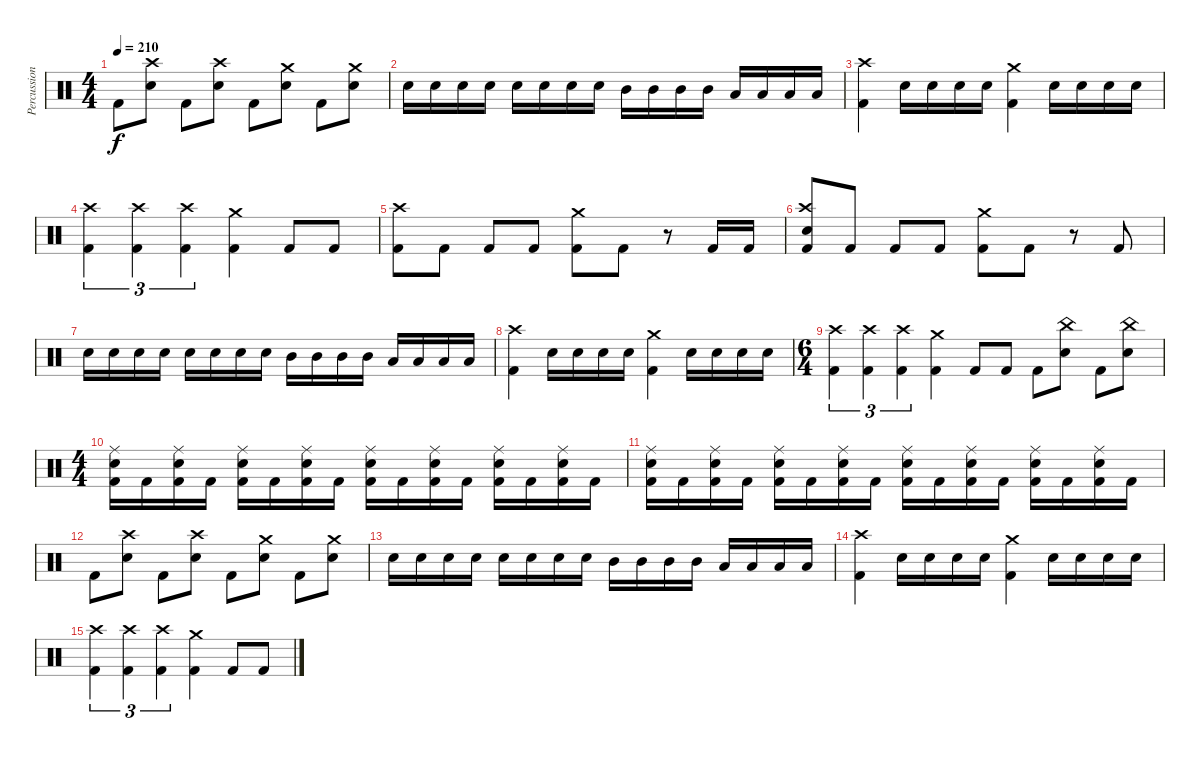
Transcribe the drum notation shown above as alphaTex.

\track ("Percussion" "Percussion") {instrument percussion}
\staff {score}
\articulation defaults
\ts (4 4)
\tempo 210
\clef neutral
\ks c "Kick (hit) 2".8{dy f}
("Crash high (hit)" "Electric Snare (hit)").8 "Kick (hit) 2".8 ("Crash high (hit)" "Electric Snare (hit)").8 "Kick (hit) 2".8 ("Crash medium (hit)" "Electric Snare (hit)").8 "Kick (hit) 2".8 ("Crash medium (hit)" "Electric Snare (hit)").8 |
"Electric Snare (hit)".16 "Electric Snare (hit)".16 "Electric Snare (hit)".16 "Electric Snare (hit)".16 "Electric Snare (hit)".16 "Electric Snare (hit)".16 "Electric Snare (hit)".16 "Electric Snare (hit)".16 "Mid Tom (hit)".16 "Mid Tom (hit)".16 "Mid Tom (hit)".16 "Mid Tom (hit)".16 "Low Tom (hit)".16 "Low Tom (hit)".16 "Low Tom (hit)".16 "Low Tom (hit)".16 |
("Crash high (hit)" "Kick (hit) 2").4 "Electric Snare (hit)".16 "Electric Snare (hit)".16 "Electric Snare (hit)".16 "Electric Snare (hit)".16 ("Crash medium (hit)" "Kick (hit) 2").4 "Electric Snare (hit)".16 "Electric Snare (hit)".16 "Electric Snare (hit)".16 "Electric Snare (hit)".16 |
("Crash high (hit)" "Kick (hit) 2").4{tu (3 2)} ("Crash high (hit)" "Kick (hit) 2").4{tu (3 2)} ("Crash high (hit)" "Kick (hit) 2").4{tu (3 2)} ("Crash medium (hit)" "Kick (hit) 2").4 "Kick (hit) 2".8 "Kick (hit) 2".8 |
("Crash high (hit)" "Kick (hit) 2").8 "Kick (hit) 2".8 "Kick (hit) 2".8 "Kick (hit) 2".8 ("Crash medium (hit)" "Kick (hit) 2").8 "Kick (hit) 2".8 r.8 "Kick (hit) 2".16 "Kick (hit) 2".16 |
("Crash high (hit)" "Electric Snare (hit)" "Kick (hit) 2").8 "Kick (hit) 2".8 "Kick (hit) 2".8 "Kick (hit) 2".8 ("Crash medium (hit)" "Kick (hit) 2").8 "Kick (hit) 2".8 r.8 "Kick (hit) 2".8 |
"Electric Snare (hit)".16 "Electric Snare (hit)".16 "Electric Snare (hit)".16 "Electric Snare (hit)".16 "Electric Snare (hit)".16 "Electric Snare (hit)".16 "Electric Snare (hit)".16 "Electric Snare (hit)".16 "Mid Tom (hit)".16 "Mid Tom (hit)".16 "Mid Tom (hit)".16 "Mid Tom (hit)".16 "Low Tom (hit)".16 "Low Tom (hit)".16 "Low Tom (hit)".16 "Low Tom (hit)".16 |
("Crash high (hit)" "Kick (hit) 2").4 "Electric Snare (hit)".16 "Electric Snare (hit)".16 "Electric Snare (hit)".16 "Electric Snare (hit)".16 ("Crash medium (hit)" "Kick (hit) 2").4 "Electric Snare (hit)".16 "Electric Snare (hit)".16 "Electric Snare (hit)".16 "Electric Snare (hit)".16 |
\ts (6 4)
("Crash high (hit)" "Kick (hit) 2").4{tu (3 2)} ("Crash high (hit)" "Kick (hit) 2").4{tu (3 2)} ("Crash high (hit)" "Kick (hit) 2").4{tu (3 2)} ("Crash medium (hit)" "Kick (hit) 2").4 "Kick (hit) 2".8 "Kick (hit) 2".8 "Kick (hit) 2".8 ("China (hit)" "Electric Snare (hit)").8 "Kick (hit) 2".8 ("China (hit)" "Electric Snare (hit)").8 |
\ts (4 4)
("Ride (middle)" "Electric Snare (hit)" "Kick (hit) 2").16 "Kick (hit) 2".16 ("Ride (middle)" "Electric Snare (hit)" "Kick (hit) 2").16 "Kick (hit) 2".16 ("Ride (middle)" "Electric Snare (hit)" "Kick (hit) 2").16 "Kick (hit) 2".16 ("Ride (middle)" "Electric Snare (hit)" "Kick (hit) 2").16 "Kick (hit) 2".16 ("Ride (middle)" "Electric Snare (hit)" "Kick (hit) 2").16 "Kick (hit) 2".16 ("Ride (middle)" "Electric Snare (hit)" "Kick (hit) 2").16 "Kick (hit) 2".16 ("Ride (middle)" "Electric Snare (hit)" "Kick (hit) 2").16 "Kick (hit) 2".16 ("Ride (middle)" "Electric Snare (hit)" "Kick (hit) 2").16 "Kick (hit) 2".16 |
("Ride (middle)" "Electric Snare (hit)" "Kick (hit) 2").16 "Kick (hit) 2".16 ("Ride (middle)" "Electric Snare (hit)" "Kick (hit) 2").16 "Kick (hit) 2".16 ("Ride (middle)" "Electric Snare (hit)" "Kick (hit) 2").16 "Kick (hit) 2".16 ("Ride (middle)" "Electric Snare (hit)" "Kick (hit) 2").16 "Kick (hit) 2".16 ("Ride (middle)" "Electric Snare (hit)" "Kick (hit) 2").16 "Kick (hit) 2".16 ("Ride (middle)" "Electric Snare (hit)" "Kick (hit) 2").16 "Kick (hit) 2".16 ("Ride (middle)" "Electric Snare (hit)" "Kick (hit) 2").16 "Kick (hit) 2".16 ("Ride (middle)" "Electric Snare (hit)" "Kick (hit) 2").16 "Kick (hit) 2".16 |
"Kick (hit) 2".8 ("Crash high (hit)" "Electric Snare (hit)").8 "Kick (hit) 2".8 ("Crash high (hit)" "Electric Snare (hit)").8 "Kick (hit) 2".8 ("Crash medium (hit)" "Electric Snare (hit)").8 "Kick (hit) 2".8 ("Crash medium (hit)" "Electric Snare (hit)").8 |
"Electric Snare (hit)".16 "Electric Snare (hit)".16 "Electric Snare (hit)".16 "Electric Snare (hit)".16 "Electric Snare (hit)".16 "Electric Snare (hit)".16 "Electric Snare (hit)".16 "Electric Snare (hit)".16 "Mid Tom (hit)".16 "Mid Tom (hit)".16 "Mid Tom (hit)".16 "Mid Tom (hit)".16 "Low Tom (hit)".16 "Low Tom (hit)".16 "Low Tom (hit)".16 "Low Tom (hit)".16 |
("Crash high (hit)" "Kick (hit) 2").4 "Electric Snare (hit)".16 "Electric Snare (hit)".16 "Electric Snare (hit)".16 "Electric Snare (hit)".16 ("Crash medium (hit)" "Kick (hit) 2").4 "Electric Snare (hit)".16 "Electric Snare (hit)".16 "Electric Snare (hit)".16 "Electric Snare (hit)".16 |
("Crash high (hit)" "Kick (hit) 2").4{tu (3 2)} ("Crash high (hit)" "Kick (hit) 2").4{tu (3 2)} ("Crash high (hit)" "Kick (hit) 2").4{tu (3 2)} ("Crash medium (hit)" "Kick (hit) 2").4 "Kick (hit) 2".8 "Kick (hit) 2".8
